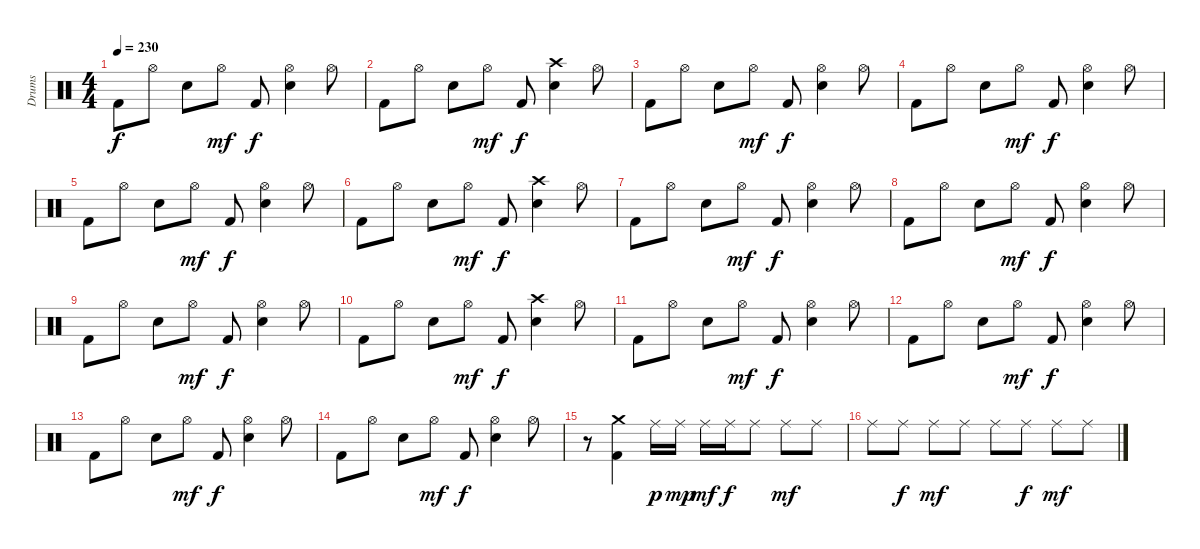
\track ("Drums" "Drums") {instrument percussion}
\staff {score}
\articulation defaults
\ts (4 4)
\tempo 230
\clef neutral
\ks c "Kick (hit) 2".8{dy f} "Hi-Hat (open)".8 "Electric Snare (hit)".8 "Hi-Hat (open)".8{dy mf} "Kick (hit) 2".8{dy f}
("Hi-Hat (open)" "Electric Snare (hit)").4 "Hi-Hat (open)".8 |
"Kick (hit) 2".8 "Hi-Hat (open)".8 "Electric Snare (hit)".8 "Hi-Hat (open)".8{dy mf} "Kick (hit) 2".8{dy f} ("Crash high (hit)" "Electric Snare (hit)").4 "Hi-Hat (open)".8 |
"Kick (hit) 2".8 "Hi-Hat (open)".8 "Electric Snare (hit)".8 "Hi-Hat (open)".8{dy mf} "Kick (hit) 2".8{dy f} ("Hi-Hat (open)" "Electric Snare (hit)").4 "Hi-Hat (open)".8 |
"Kick (hit) 2".8 "Hi-Hat (open)".8 "Electric Snare (hit)".8 "Hi-Hat (open)".8{dy mf} "Kick (hit) 2".8{dy f} ("Hi-Hat (open)" "Electric Snare (hit)").4 "Hi-Hat (open)".8 |
"Kick (hit) 2".8 "Hi-Hat (open)".8 "Electric Snare (hit)".8 "Hi-Hat (open)".8{dy mf} "Kick (hit) 2".8{dy f} ("Hi-Hat (open)" "Electric Snare (hit)").4 "Hi-Hat (open)".8 |
"Kick (hit) 2".8 "Hi-Hat (open)".8 "Electric Snare (hit)".8 "Hi-Hat (open)".8{dy mf} "Kick (hit) 2".8{dy f} ("Crash high (hit)" "Electric Snare (hit)").4 "Hi-Hat (open)".8 |
"Kick (hit) 2".8 "Hi-Hat (open)".8 "Electric Snare (hit)".8 "Hi-Hat (open)".8{dy mf} "Kick (hit) 2".8{dy f} ("Hi-Hat (open)" "Electric Snare (hit)").4 "Hi-Hat (open)".8 |
"Kick (hit) 2".8 "Hi-Hat (open)".8 "Electric Snare (hit)".8 "Hi-Hat (open)".8{dy mf} "Kick (hit) 2".8{dy f} ("Hi-Hat (open)" "Electric Snare (hit)").4 "Hi-Hat (open)".8 |
"Kick (hit) 2".8 "Hi-Hat (open)".8 "Electric Snare (hit)".8 "Hi-Hat (open)".8{dy mf} "Kick (hit) 2".8{dy f} ("Hi-Hat (open)" "Electric Snare (hit)").4 "Hi-Hat (open)".8 |
"Kick (hit) 2".8 "Hi-Hat (open)".8 "Electric Snare (hit)".8 "Hi-Hat (open)".8{dy mf} "Kick (hit) 2".8{dy f} ("Crash high (hit)" "Electric Snare (hit)").4 "Hi-Hat (open)".8 |
"Kick (hit) 2".8 "Hi-Hat (open)".8 "Electric Snare (hit)".8 "Hi-Hat (open)".8{dy mf} "Kick (hit) 2".8{dy f} ("Hi-Hat (open)" "Electric Snare (hit)").4 "Hi-Hat (open)".8 |
"Kick (hit) 2".8 "Hi-Hat (open)".8 "Electric Snare (hit)".8 "Hi-Hat (open)".8{dy mf} "Kick (hit) 2".8{dy f} ("Hi-Hat (open)" "Electric Snare (hit)").4 "Hi-Hat (open)".8 |
"Kick (hit) 2".8 "Hi-Hat (open)".8 "Electric Snare (hit)".8 "Hi-Hat (open)".8{dy mf} "Kick (hit) 2".8{dy f} ("Hi-Hat (open)" "Electric Snare (hit)").4 "Hi-Hat (open)".8 |
"Kick (hit) 2".8 "Hi-Hat (open)".8 "Electric Snare (hit)".8 "Hi-Hat (open)".8{dy mf} "Kick (hit) 2".8{dy f} ("Hi-Hat (open)" "Electric Snare (hit)").4 "Hi-Hat (open)".8 |
r.8 ("Crash medium (hit)" "Kick (hit) 2").4 "Ride (middle)".16{dy p} "Ride (middle)".16{dy mp} "Ride (middle)".16{dy mf} "Ride (middle)".16{dy f} "Ride (middle)".8 "Ride (middle)".8{dy mf} "Ride (middle)".8 |
"Ride (middle)".8 "Ride (middle)".8{dy f} "Ride (middle)".8{dy mf} "Ride (middle)".8 "Ride (middle)".8 "Ride (middle)".8{dy f} "Ride (middle)".8{dy mf} "Ride (middle)".8
